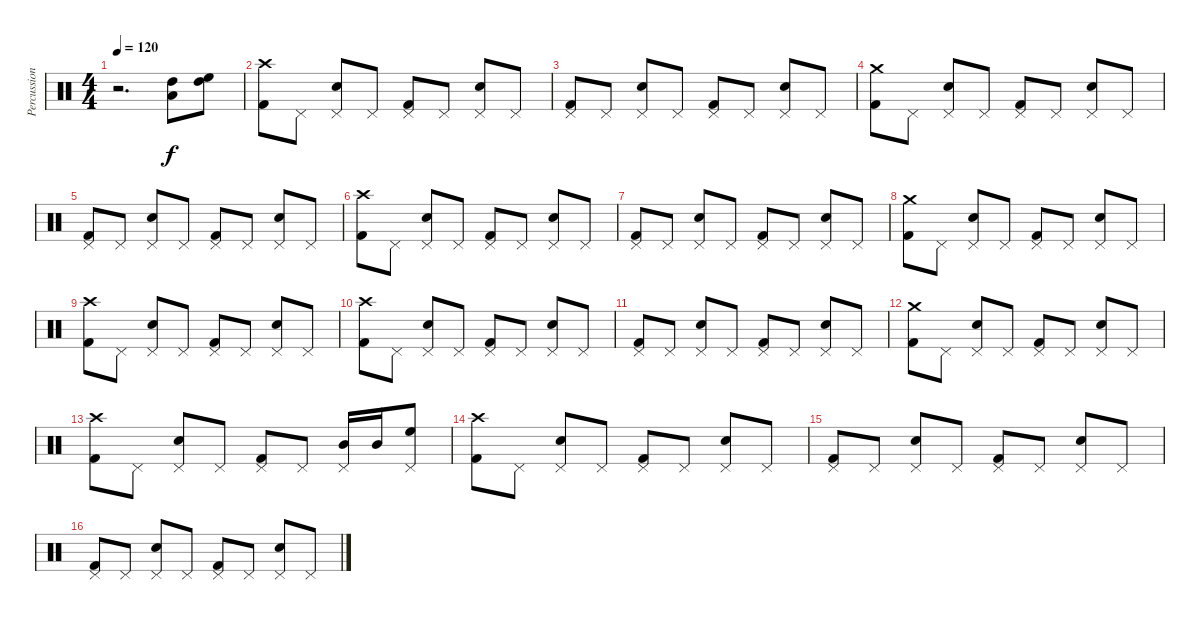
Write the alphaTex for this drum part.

\track ("Percussions" "Percussion") {instrument percussion}
\staff {score}
\articulation defaults
\ts (4 4)
\tempo 120
\clef neutral
\ks c
r.2{d dy f} ("Low Tom (hit)" "High Tom (hit)").8 ("High Floor Tom (hit)" "High Tom (hit)").8 |
("Crash high (hit)" "Kick (hit) 2").8 "Pedal Hi-Hat (hit)".8 ("Pedal Hi-Hat (hit)" "Snare (hit) 2").8 "Pedal Hi-Hat (hit)".8 ("Pedal Hi-Hat (hit)" "Kick (hit) 2").8 "Pedal Hi-Hat (hit)".8 ("Pedal Hi-Hat (hit)" "Snare (hit) 2").8 "Pedal Hi-Hat (hit)".8 |
("Pedal Hi-Hat (hit)" "Kick (hit) 2").8 "Pedal Hi-Hat (hit)".8 ("Pedal Hi-Hat (hit)" "Snare (hit) 2").8 "Pedal Hi-Hat (hit)".8 ("Pedal Hi-Hat (hit)" "Kick (hit) 2").8 "Pedal Hi-Hat (hit)".8 ("Pedal Hi-Hat (hit)" "Snare (hit) 2").8 "Pedal Hi-Hat (hit)".8 |
("Crash medium (hit)" "Kick (hit) 2").8 "Pedal Hi-Hat (hit)".8 ("Pedal Hi-Hat (hit)" "Snare (hit) 2").8 "Pedal Hi-Hat (hit)".8 ("Pedal Hi-Hat (hit)" "Kick (hit) 2").8 "Pedal Hi-Hat (hit)".8 ("Pedal Hi-Hat (hit)" "Snare (hit) 2").8 "Pedal Hi-Hat (hit)".8 |
("Pedal Hi-Hat (hit)" "Kick (hit) 2").8 "Pedal Hi-Hat (hit)".8 ("Pedal Hi-Hat (hit)" "Snare (hit) 2").8 "Pedal Hi-Hat (hit)".8 ("Pedal Hi-Hat (hit)" "Kick (hit) 2").8 "Pedal Hi-Hat (hit)".8 ("Pedal Hi-Hat (hit)" "Snare (hit) 2").8 "Pedal Hi-Hat (hit)".8 |
("Crash high (hit)" "Kick (hit) 2").8 "Pedal Hi-Hat (hit)".8 ("Pedal Hi-Hat (hit)" "Snare (hit) 2").8 "Pedal Hi-Hat (hit)".8 ("Pedal Hi-Hat (hit)" "Kick (hit) 2").8 "Pedal Hi-Hat (hit)".8 ("Pedal Hi-Hat (hit)" "Snare (hit) 2").8 "Pedal Hi-Hat (hit)".8 |
("Pedal Hi-Hat (hit)" "Kick (hit) 2").8 "Pedal Hi-Hat (hit)".8 ("Pedal Hi-Hat (hit)" "Snare (hit) 2").8 "Pedal Hi-Hat (hit)".8 ("Pedal Hi-Hat (hit)" "Kick (hit) 2").8 "Pedal Hi-Hat (hit)".8 ("Pedal Hi-Hat (hit)" "Snare (hit) 2").8 "Pedal Hi-Hat (hit)".8 |
("Crash medium (hit)" "Kick (hit) 2").8 "Pedal Hi-Hat (hit)".8 ("Pedal Hi-Hat (hit)" "Snare (hit) 2").8 "Pedal Hi-Hat (hit)".8 ("Pedal Hi-Hat (hit)" "Kick (hit) 2").8 "Pedal Hi-Hat (hit)".8 ("Pedal Hi-Hat (hit)" "Snare (hit) 2").8 "Pedal Hi-Hat (hit)".8 |
("Crash high (hit)" "Kick (hit) 2").8 "Pedal Hi-Hat (hit)".8 ("Pedal Hi-Hat (hit)" "Snare (hit) 2").8 "Pedal Hi-Hat (hit)".8 ("Pedal Hi-Hat (hit)" "Kick (hit) 2").8 "Pedal Hi-Hat (hit)".8 ("Pedal Hi-Hat (hit)" "Snare (hit) 2").8 "Pedal Hi-Hat (hit)".8 |
("Crash high (hit)" "Kick (hit) 2").8 "Pedal Hi-Hat (hit)".8 ("Pedal Hi-Hat (hit)" "Snare (hit) 2").8 "Pedal Hi-Hat (hit)".8 ("Pedal Hi-Hat (hit)" "Kick (hit) 2").8 "Pedal Hi-Hat (hit)".8 ("Pedal Hi-Hat (hit)" "Snare (hit) 2").8 "Pedal Hi-Hat (hit)".8 |
("Pedal Hi-Hat (hit)" "Kick (hit) 2").8 "Pedal Hi-Hat (hit)".8 ("Pedal Hi-Hat (hit)" "Snare (hit) 2").8 "Pedal Hi-Hat (hit)".8 ("Pedal Hi-Hat (hit)" "Kick (hit) 2").8 "Pedal Hi-Hat (hit)".8 ("Pedal Hi-Hat (hit)" "Snare (hit) 2").8 "Pedal Hi-Hat (hit)".8 |
("Crash medium (hit)" "Kick (hit) 2").8 "Pedal Hi-Hat (hit)".8 ("Pedal Hi-Hat (hit)" "Snare (hit) 2").8 "Pedal Hi-Hat (hit)".8 ("Pedal Hi-Hat (hit)" "Kick (hit) 2").8 "Pedal Hi-Hat (hit)".8 ("Pedal Hi-Hat (hit)" "Snare (hit) 2").8 "Pedal Hi-Hat (hit)".8 |
("Crash high (hit)" "Kick (hit) 2").8 "Pedal Hi-Hat (hit)".8 ("Pedal Hi-Hat (hit)" "Snare (hit) 2").8 "Pedal Hi-Hat (hit)".8 ("Pedal Hi-Hat (hit)" "Kick (hit) 2").8 "Pedal Hi-Hat (hit)".8 ("Pedal Hi-Hat (hit)" "Mid Tom (hit)").16 "Mid Tom (hit)".16 ("Pedal Hi-Hat (hit)" "High Floor Tom (hit)").8 |
("Crash high (hit)" "Kick (hit) 2").8 "Pedal Hi-Hat (hit)".8 ("Pedal Hi-Hat (hit)" "Snare (hit) 2").8 "Pedal Hi-Hat (hit)".8 ("Pedal Hi-Hat (hit)" "Kick (hit) 2").8 "Pedal Hi-Hat (hit)".8 ("Pedal Hi-Hat (hit)" "Snare (hit) 2").8 "Pedal Hi-Hat (hit)".8 |
("Pedal Hi-Hat (hit)" "Kick (hit) 2").8 "Pedal Hi-Hat (hit)".8 ("Pedal Hi-Hat (hit)" "Snare (hit) 2").8 "Pedal Hi-Hat (hit)".8 ("Pedal Hi-Hat (hit)" "Kick (hit) 2").8 "Pedal Hi-Hat (hit)".8 ("Pedal Hi-Hat (hit)" "Snare (hit) 2").8 "Pedal Hi-Hat (hit)".8 |
("Pedal Hi-Hat (hit)" "Kick (hit) 2").8 "Pedal Hi-Hat (hit)".8 ("Pedal Hi-Hat (hit)" "Snare (hit) 2").8 "Pedal Hi-Hat (hit)".8 ("Pedal Hi-Hat (hit)" "Kick (hit) 2").8 "Pedal Hi-Hat (hit)".8 ("Pedal Hi-Hat (hit)" "Snare (hit) 2").8 "Pedal Hi-Hat (hit)".8
